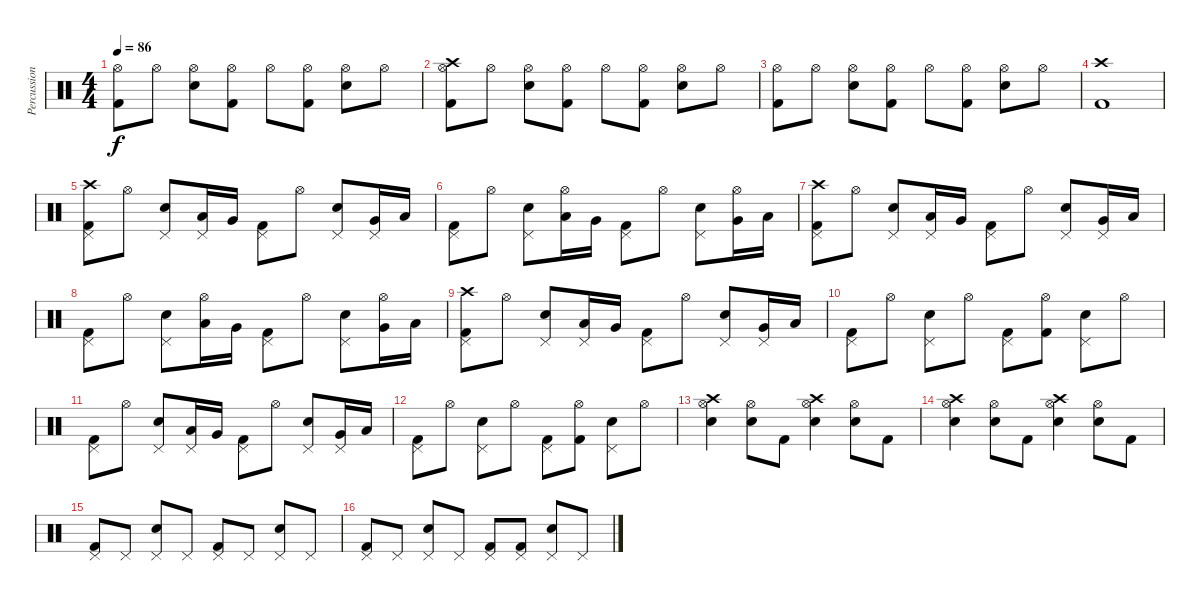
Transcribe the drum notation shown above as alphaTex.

\track ("Percussion" "Percussion") {instrument percussion}
\staff {score}
\articulation defaults
\ts (4 4)
\tempo 86
\clef neutral
\ks c
("Kick (hit) 2" "Hi-Hat (open)").8{dy f} "Hi-Hat (open)".8 ("Snare (hit) 2" "Hi-Hat (open)").8 ("Kick (hit) 2" "Hi-Hat (open)").8 "Hi-Hat (open)".8 ("Kick (hit) 2" "Hi-Hat (open)").8 ("Snare (hit) 2" "Hi-Hat (open)").8 "Hi-Hat (open)".8 |
("Kick (hit) 2" "Hi-Hat (open)" "Crash high (hit)").8 "Hi-Hat (open)".8 ("Snare (hit) 2" "Hi-Hat (open)").8 ("Kick (hit) 2" "Hi-Hat (open)").8 "Hi-Hat (open)".8 ("Kick (hit) 2" "Hi-Hat (open)").8 ("Snare (hit) 2" "Hi-Hat (open)").8 "Hi-Hat (open)".8 |
("Kick (hit) 2" "Hi-Hat (open)").8 "Hi-Hat (open)".8 ("Snare (hit) 2" "Hi-Hat (open)").8 ("Kick (hit) 2" "Hi-Hat (open)").8 "Hi-Hat (open)".8 ("Kick (hit) 2" "Hi-Hat (open)").8 ("Snare (hit) 2" "Hi-Hat (open)").8 "Hi-Hat (open)".8 |
("Kick (hit) 2" "Crash high (hit)").1 |
("Kick (hit) 2" "Pedal Hi-Hat (hit)" "Crash high (hit)").8 "Hi-Hat (open)".8 ("Snare (hit) 2" "Pedal Hi-Hat (hit)").8 ("Low Tom (hit)" "Pedal Hi-Hat (hit)").16 "Very Low Tom (hit)".16 ("Kick (hit) 2" "Pedal Hi-Hat (hit)").8 "Hi-Hat (open)".8 ("Snare (hit) 2" "Pedal Hi-Hat (hit)").8 ("Very Low Tom (hit)" "Pedal Hi-Hat (hit)").16 "Low Floor Tom (hit)".16 |
("Kick (hit) 2" "Pedal Hi-Hat (hit)").8 "Hi-Hat (open)".8 ("Snare (hit) 2" "Pedal Hi-Hat (hit)").8 ("Low Tom (hit)" "Hi-Hat (open)").16 "Very Low Tom (hit)".16 ("Kick (hit) 2" "Pedal Hi-Hat (hit)").8 "Hi-Hat (open)".8 ("Snare (hit) 2" "Pedal Hi-Hat (hit)").8 ("Very Low Tom (hit)" "Hi-Hat (open)").16 "Low Floor Tom (hit)".16 |
("Kick (hit) 2" "Pedal Hi-Hat (hit)" "Crash high (hit)").8 "Hi-Hat (open)".8 ("Snare (hit) 2" "Pedal Hi-Hat (hit)").8 ("Low Tom (hit)" "Pedal Hi-Hat (hit)").16 "Very Low Tom (hit)".16 ("Kick (hit) 2" "Pedal Hi-Hat (hit)").8 "Hi-Hat (open)".8 ("Snare (hit) 2" "Pedal Hi-Hat (hit)").8 ("Very Low Tom (hit)" "Pedal Hi-Hat (hit)").16 "Low Floor Tom (hit)".16 |
("Kick (hit) 2" "Pedal Hi-Hat (hit)").8 "Hi-Hat (open)".8 ("Snare (hit) 2" "Pedal Hi-Hat (hit)").8 ("Low Tom (hit)" "Hi-Hat (open)").16 "Very Low Tom (hit)".16 ("Kick (hit) 2" "Pedal Hi-Hat (hit)").8 "Hi-Hat (open)".8 ("Snare (hit) 2" "Pedal Hi-Hat (hit)").8 ("Very Low Tom (hit)" "Hi-Hat (open)").16 "Low Floor Tom (hit)".16 |
("Kick (hit) 2" "Pedal Hi-Hat (hit)" "Crash high (hit)").8 "Hi-Hat (open)".8 ("Snare (hit) 2" "Pedal Hi-Hat (hit)").8 ("Low Tom (hit)" "Pedal Hi-Hat (hit)").16 "Very Low Tom (hit)".16 ("Kick (hit) 2" "Pedal Hi-Hat (hit)").8 "Hi-Hat (open)".8 ("Snare (hit) 2" "Pedal Hi-Hat (hit)").8 ("Very Low Tom (hit)" "Pedal Hi-Hat (hit)").16 "Low Floor Tom (hit)".16 |
("Kick (hit) 2" "Pedal Hi-Hat (hit)").8 "Hi-Hat (open)".8 ("Snare (hit) 2" "Pedal Hi-Hat (hit)").8 "Hi-Hat (open)".8 ("Kick (hit) 2" "Pedal Hi-Hat (hit)").8 ("Kick (hit) 2" "Hi-Hat (open)").8 ("Snare (hit) 2" "Pedal Hi-Hat (hit)").8 "Hi-Hat (open)".8 |
("Kick (hit) 2" "Pedal Hi-Hat (hit)").8 "Hi-Hat (open)".8 ("Snare (hit) 2" "Pedal Hi-Hat (hit)").8 ("Low Tom (hit)" "Pedal Hi-Hat (hit)").16 "Very Low Tom (hit)".16 ("Kick (hit) 2" "Pedal Hi-Hat (hit)").8 "Hi-Hat (open)".8 ("Snare (hit) 2" "Pedal Hi-Hat (hit)").8 ("Very Low Tom (hit)" "Pedal Hi-Hat (hit)").16 "Low Floor Tom (hit)".16 |
("Kick (hit) 2" "Pedal Hi-Hat (hit)").8 "Hi-Hat (open)".8 ("Snare (hit) 2" "Pedal Hi-Hat (hit)").8 "Hi-Hat (open)".8 ("Kick (hit) 2" "Pedal Hi-Hat (hit)").8 ("Kick (hit) 2" "Hi-Hat (open)").8 ("Snare (hit) 2" "Pedal Hi-Hat (hit)").8 "Hi-Hat (open)".8 |
("Snare (hit) 2" "Hi-Hat (open)" "Crash high (hit)").4 ("Snare (hit) 2" "Hi-Hat (open)").8 "Kick (hit) 2".8 ("Snare (hit) 2" "Hi-Hat (open)" "Crash high (hit)").4 ("Snare (hit) 2" "Hi-Hat (open)").8 "Kick (hit) 2".8 |
("Snare (hit) 2" "Hi-Hat (open)" "Crash high (hit)").4 ("Snare (hit) 2" "Hi-Hat (open)").8 "Kick (hit) 2".8 ("Snare (hit) 2" "Hi-Hat (open)" "Crash high (hit)").4 ("Snare (hit) 2" "Hi-Hat (open)").8 "Kick (hit) 2".8 |
("Kick (hit) 2" "Pedal Hi-Hat (hit)").8 "Pedal Hi-Hat (hit)".8 ("Snare (hit) 2" "Pedal Hi-Hat (hit)").8 "Pedal Hi-Hat (hit)".8 ("Kick (hit) 2" "Pedal Hi-Hat (hit)").8 "Pedal Hi-Hat (hit)".8 ("Snare (hit) 2" "Pedal Hi-Hat (hit)").8 "Pedal Hi-Hat (hit)".8 |
("Kick (hit) 2" "Pedal Hi-Hat (hit)").8 "Pedal Hi-Hat (hit)".8 ("Snare (hit) 2" "Pedal Hi-Hat (hit)").8 "Pedal Hi-Hat (hit)".8 ("Kick (hit) 2" "Pedal Hi-Hat (hit)").8 ("Kick (hit) 2" "Pedal Hi-Hat (hit)").8 ("Snare (hit) 2" "Pedal Hi-Hat (hit)").8 "Pedal Hi-Hat (hit)".8
